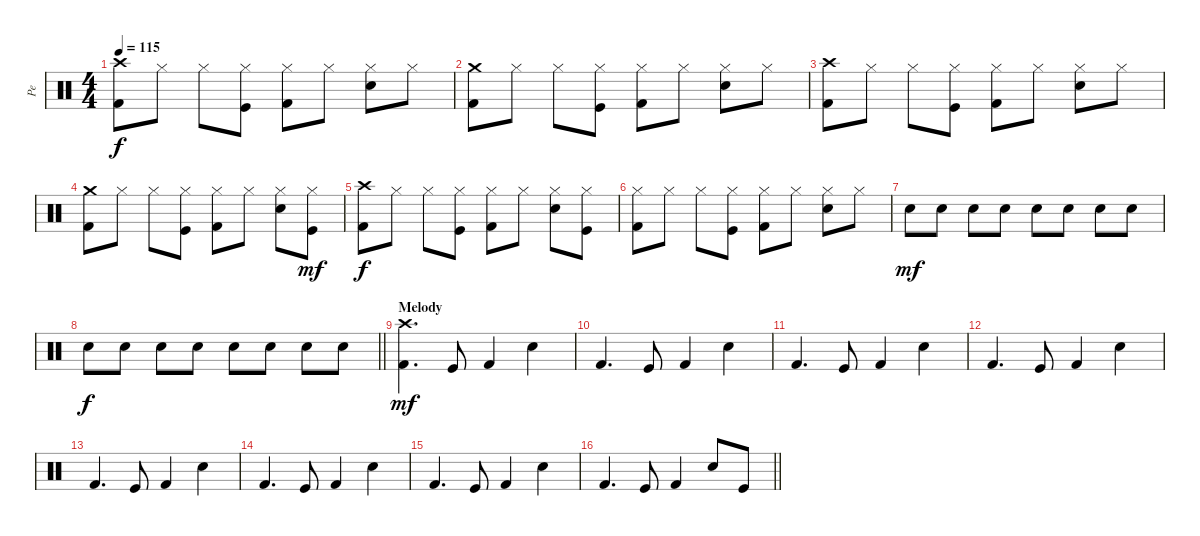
\track ("Pe" "Pe") {instrument percussion}
\staff {score}
\articulation defaults
\ts (4 4)
\tempo 115
\clef neutral
\ks c
("Kick (hit) 2" "Crash high (hit)").8{dy f} "Hi-Hat (closed)".8 "Hi-Hat (closed)".8 ("Kick (hit)" "Hi-Hat (closed)").8 ("Kick (hit) 2" "Hi-Hat (closed)").8 "Hi-Hat (closed)".8 ("Electric Snare (hit)" "Hi-Hat (closed)").8 "Hi-Hat (closed)".8 |
("Kick (hit) 2" "Crash medium (hit)").8 "Hi-Hat (closed)".8 "Hi-Hat (closed)".8 ("Kick (hit)" "Hi-Hat (closed)").8 ("Kick (hit) 2" "Hi-Hat (closed)").8 "Hi-Hat (closed)".8 ("Electric Snare (hit)" "Hi-Hat (closed)").8 "Hi-Hat (closed)".8 |
("Kick (hit) 2" "Crash high (hit)").8 "Hi-Hat (closed)".8 "Hi-Hat (closed)".8 ("Kick (hit)" "Hi-Hat (closed)").8 ("Kick (hit) 2" "Hi-Hat (closed)").8 "Hi-Hat (closed)".8 ("Electric Snare (hit)" "Hi-Hat (closed)").8 "Hi-Hat (closed)".8 |
("Kick (hit) 2" "Crash medium (hit)").8 "Hi-Hat (closed)".8 "Hi-Hat (closed)".8 ("Kick (hit)" "Hi-Hat (closed)").8 ("Kick (hit) 2" "Hi-Hat (closed)").8 "Hi-Hat (closed)".8 ("Electric Snare (hit)" "Hi-Hat (closed)").8 ("Kick (hit)" "Hi-Hat (closed)").8{dy mf} |
("Kick (hit) 2" "Crash high (hit)").8{dy f} "Hi-Hat (closed)".8 "Hi-Hat (closed)".8 ("Kick (hit)" "Hi-Hat (closed)").8 ("Kick (hit) 2" "Hi-Hat (closed)").8 "Hi-Hat (closed)".8 ("Electric Snare (hit)" "Hi-Hat (closed)").8 ("Kick (hit)" "Hi-Hat (closed)").8 |
("Kick (hit) 2" "Hi-Hat (closed)").8 "Hi-Hat (closed)".8 "Hi-Hat (closed)".8 ("Kick (hit)" "Hi-Hat (closed)").8 ("Kick (hit) 2" "Hi-Hat (closed)").8 "Hi-Hat (closed)".8 ("Electric Snare (hit)" "Hi-Hat (closed)").8 "Hi-Hat (closed)".8 |
"Electric Snare (hit)".8{dy mf} "Electric Snare (hit)".8 "Electric Snare (hit)".8 "Electric Snare (hit)".8 "Electric Snare (hit)".8 "Electric Snare (hit)".8 "Electric Snare (hit)".8 "Electric Snare (hit)".8 |
\barLineRight lightlight "Electric Snare (hit)".8{dy f} "Electric Snare (hit)".8 "Electric Snare (hit)".8 "Electric Snare (hit)".8 "Electric Snare (hit)".8 "Electric Snare (hit)".8 "Electric Snare (hit)".8 "Electric Snare (hit)".8
|
\section ("" "Melody")
("Kick (hit) 2" "Crash high (hit)").4{d dy mf} "Kick (hit)".8 "Kick (hit) 2".4 "Electric Snare (hit)".4 |
"Kick (hit) 2".4{d} "Kick (hit)".8 "Kick (hit) 2".4 "Electric Snare (hit)".4 |
"Kick (hit) 2".4{d} "Kick (hit)".8 "Kick (hit) 2".4 "Electric Snare (hit)".4 |
"Kick (hit) 2".4{d} "Kick (hit)".8 "Kick (hit) 2".4 "Electric Snare (hit)".4 |
"Kick (hit) 2".4{d} "Kick (hit)".8 "Kick (hit) 2".4 "Electric Snare (hit)".4 |
"Kick (hit) 2".4{d} "Kick (hit)".8 "Kick (hit) 2".4 "Electric Snare (hit)".4 |
"Kick (hit) 2".4{d} "Kick (hit)".8 "Kick (hit) 2".4 "Electric Snare (hit)".4 |
\barLineRight lightlight "Kick (hit) 2".4{d} "Kick (hit)".8 "Kick (hit) 2".4 "Electric Snare (hit)".8 "Kick (hit)".8
